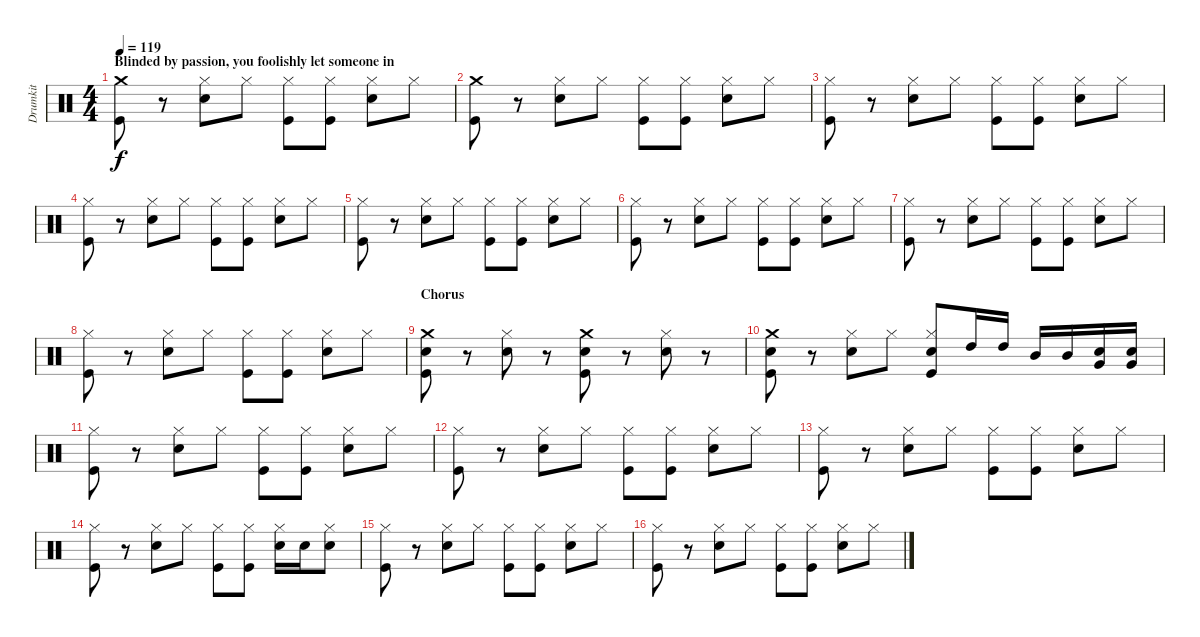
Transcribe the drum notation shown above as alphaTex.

\track ("Drumkit" "Drumkit") {instrument percussion}
\staff {score}
\articulation defaults
\ts (4 4)
\section ("" "Blinded by passion, you foolishly let someone in")
\tempo 119
\clef neutral
\ks c
("Crash medium (hit)" "Kick (hit)").8{dy f} r.8 ("Hi-Hat (closed)" "Snare (hit) 2").8 "Hi-Hat (closed)".8 ("Hi-Hat (closed)" "Kick (hit)").8 ("Hi-Hat (closed)" "Kick (hit)").8 ("Hi-Hat (closed)" "Snare (hit) 2").8 "Hi-Hat (closed)".8 |
("Crash medium (hit)" "Kick (hit)").8 r.8 ("Hi-Hat (closed)" "Snare (hit) 2").8 "Hi-Hat (closed)".8 ("Hi-Hat (closed)" "Kick (hit)").8 ("Hi-Hat (closed)" "Kick (hit)").8 ("Hi-Hat (closed)" "Snare (hit) 2").8 "Hi-Hat (closed)".8 |
("Hi-Hat (closed)" "Kick (hit)").8 r.8 ("Hi-Hat (closed)" "Snare (hit) 2").8 "Hi-Hat (closed)".8 ("Hi-Hat (closed)" "Kick (hit)").8 ("Hi-Hat (closed)" "Kick (hit)").8 ("Hi-Hat (closed)" "Snare (hit) 2").8 "Hi-Hat (closed)".8 |
("Hi-Hat (closed)" "Kick (hit)").8 r.8 ("Hi-Hat (closed)" "Snare (hit) 2").8 "Hi-Hat (closed)".8 ("Hi-Hat (closed)" "Kick (hit)").8 ("Hi-Hat (closed)" "Kick (hit)").8 ("Hi-Hat (closed)" "Snare (hit) 2").8 "Hi-Hat (closed)".8 |
("Hi-Hat (closed)" "Kick (hit)").8 r.8 ("Hi-Hat (closed)" "Snare (hit) 2").8 "Hi-Hat (closed)".8 ("Hi-Hat (closed)" "Kick (hit)").8 ("Hi-Hat (closed)" "Kick (hit)").8 ("Hi-Hat (closed)" "Snare (hit) 2").8 "Hi-Hat (closed)".8 |
("Hi-Hat (closed)" "Kick (hit)").8 r.8 ("Hi-Hat (closed)" "Snare (hit) 2").8 "Hi-Hat (closed)".8 ("Hi-Hat (closed)" "Kick (hit)").8 ("Hi-Hat (closed)" "Kick (hit)").8 ("Hi-Hat (closed)" "Snare (hit) 2").8 "Hi-Hat (closed)".8 |
("Hi-Hat (closed)" "Kick (hit)").8 r.8 ("Hi-Hat (closed)" "Snare (hit) 2").8 "Hi-Hat (closed)".8 ("Hi-Hat (closed)" "Kick (hit)").8 ("Hi-Hat (closed)" "Kick (hit)").8 ("Hi-Hat (closed)" "Snare (hit) 2").8 "Hi-Hat (closed)".8 |
("Hi-Hat (closed)" "Kick (hit)").8 r.8 ("Hi-Hat (closed)" "Snare (hit) 2").8 "Hi-Hat (closed)".8 ("Hi-Hat (closed)" "Kick (hit)").8 ("Hi-Hat (closed)" "Kick (hit)").8 ("Hi-Hat (closed)" "Snare (hit) 2").8 "Hi-Hat (closed)".8 |
\section ("" "Chorus")
("Crash medium (hit)" "Snare (hit) 2" "Kick (hit)").8 r.8 ("Hi-Hat (closed)" "Snare (hit) 2").8 r.8 ("Crash medium (hit)" "Snare (hit) 2" "Kick (hit)").8 r.8 ("Hi-Hat (closed)" "Snare (hit) 2").8 r.8 |
("Crash medium (hit)" "Snare (hit) 2" "Kick (hit)").8 r.8 ("Hi-Hat (closed)" "Snare (hit) 2").8 "Hi-Hat (closed)".8 ("Hi-Hat (closed)" "Snare (hit) 2" "Kick (hit)").8 "High Tom (hit)".16 "High Tom (hit)".16 "Mid Tom (hit)".16 "Mid Tom (hit)".16 ("Snare (hit) 2" "Very Low Tom (hit)").16 ("Snare (hit) 2" "Very Low Tom (hit)").16 |
("Hi-Hat (closed)" "Kick (hit)").8 r.8 ("Hi-Hat (closed)" "Snare (hit) 2").8 "Hi-Hat (closed)".8 ("Hi-Hat (closed)" "Kick (hit)").8 ("Hi-Hat (closed)" "Kick (hit)").8 ("Hi-Hat (closed)" "Snare (hit) 2").8 "Hi-Hat (closed)".8 |
("Hi-Hat (closed)" "Kick (hit)").8 r.8 ("Hi-Hat (closed)" "Snare (hit) 2").8 "Hi-Hat (closed)".8 ("Hi-Hat (closed)" "Kick (hit)").8 ("Hi-Hat (closed)" "Kick (hit)").8 ("Hi-Hat (closed)" "Snare (hit) 2").8 "Hi-Hat (closed)".8 |
("Hi-Hat (closed)" "Kick (hit)").8 r.8 ("Hi-Hat (closed)" "Snare (hit) 2").8 "Hi-Hat (closed)".8 ("Hi-Hat (closed)" "Kick (hit)").8 ("Hi-Hat (closed)" "Kick (hit)").8 ("Hi-Hat (closed)" "Snare (hit) 2").8 "Hi-Hat (closed)".8 |
("Hi-Hat (closed)" "Kick (hit)").8 r.8 ("Hi-Hat (closed)" "Snare (hit) 2").8 "Hi-Hat (closed)".8 ("Hi-Hat (closed)" "Kick (hit)").8 ("Hi-Hat (closed)" "Kick (hit)").8 ("Hi-Hat (closed)" "Snare (hit) 2").16 "Snare (hit) 2".16 ("Hi-Hat (closed)" "Snare (hit) 2").8 |
("Hi-Hat (closed)" "Kick (hit)").8 r.8 ("Hi-Hat (closed)" "Snare (hit) 2").8 "Hi-Hat (closed)".8 ("Hi-Hat (closed)" "Kick (hit)").8 ("Hi-Hat (closed)" "Kick (hit)").8 ("Hi-Hat (closed)" "Snare (hit) 2").8 "Hi-Hat (closed)".8 |
("Hi-Hat (closed)" "Kick (hit)").8 r.8 ("Hi-Hat (closed)" "Snare (hit) 2").8 "Hi-Hat (closed)".8 ("Hi-Hat (closed)" "Kick (hit)").8 ("Hi-Hat (closed)" "Kick (hit)").8 ("Hi-Hat (closed)" "Snare (hit) 2").8 "Hi-Hat (closed)".8
